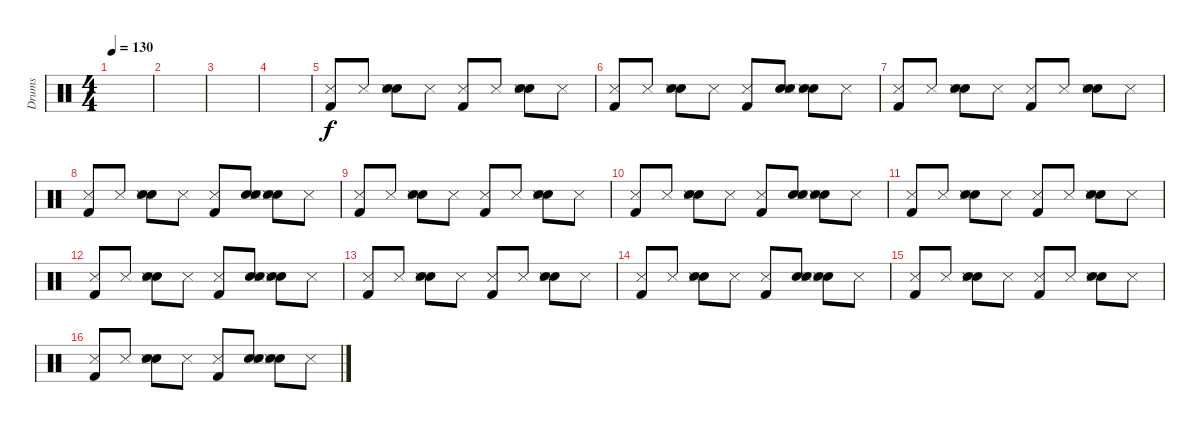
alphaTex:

\track ("Drums" "Drums") {instrument percussion}
\staff {score}
\articulation defaults
\ts (4 4)
\tempo 130
\clef neutral
\ks c
|
|
|
|
("Snare (side stick) 3" "Kick (hit) 2").8 "Snare (side stick) 3".8 ("Hand Clap (hit)" "Snare (hit) 2" "Snare (side stick) 3").8 "Snare (side stick) 3".8 ("Snare (side stick) 3" "Kick (hit) 2").8 "Snare (side stick) 3".8 ("Hand Clap (hit)" "Snare (hit) 2" "Snare (side stick) 3").8 "Snare (side stick) 3".8 |
("Snare (side stick) 3" "Kick (hit) 2").8 "Snare (side stick) 3".8 ("Hand Clap (hit)" "Snare (hit) 2" "Snare (side stick) 3").8 "Snare (side stick) 3".8 ("Snare (side stick) 3" "Kick (hit) 2").8 ("Hand Clap (hit)" "Snare (hit) 2" "Snare (side stick) 3").8 ("Hand Clap (hit)" "Snare (hit) 2" "Snare (side stick) 3").8 "Snare (side stick) 3".8 |
("Snare (side stick) 3" "Kick (hit) 2").8 "Snare (side stick) 3".8 ("Hand Clap (hit)" "Snare (hit) 2" "Snare (side stick) 3").8 "Snare (side stick) 3".8 ("Snare (side stick) 3" "Kick (hit) 2").8 "Snare (side stick) 3".8 ("Hand Clap (hit)" "Snare (hit) 2" "Snare (side stick) 3").8 "Snare (side stick) 3".8 |
("Snare (side stick) 3" "Kick (hit) 2").8 "Snare (side stick) 3".8 ("Hand Clap (hit)" "Snare (hit) 2" "Snare (side stick) 3").8 "Snare (side stick) 3".8 ("Snare (side stick) 3" "Kick (hit) 2").8 ("Hand Clap (hit)" "Snare (hit) 2" "Snare (side stick) 3").8 ("Hand Clap (hit)" "Snare (hit) 2" "Snare (side stick) 3").8 "Snare (side stick) 3".8 |
("Snare (side stick) 3" "Kick (hit) 2").8 "Snare (side stick) 3".8 ("Hand Clap (hit)" "Snare (hit) 2" "Snare (side stick) 3").8 "Snare (side stick) 3".8 ("Snare (side stick) 3" "Kick (hit) 2").8 "Snare (side stick) 3".8 ("Hand Clap (hit)" "Snare (hit) 2" "Snare (side stick) 3").8 "Snare (side stick) 3".8 |
("Snare (side stick) 3" "Kick (hit) 2").8 "Snare (side stick) 3".8 ("Hand Clap (hit)" "Snare (hit) 2" "Snare (side stick) 3").8 "Snare (side stick) 3".8 ("Snare (side stick) 3" "Kick (hit) 2").8 ("Hand Clap (hit)" "Snare (hit) 2" "Snare (side stick) 3").8 ("Hand Clap (hit)" "Snare (hit) 2" "Snare (side stick) 3").8 "Snare (side stick) 3".8 |
("Snare (side stick) 3" "Kick (hit) 2").8 "Snare (side stick) 3".8 ("Hand Clap (hit)" "Snare (hit) 2" "Snare (side stick) 3").8 "Snare (side stick) 3".8 ("Snare (side stick) 3" "Kick (hit) 2").8 "Snare (side stick) 3".8 ("Hand Clap (hit)" "Snare (hit) 2" "Snare (side stick) 3").8 "Snare (side stick) 3".8 |
("Snare (side stick) 3" "Kick (hit) 2").8 "Snare (side stick) 3".8 ("Hand Clap (hit)" "Snare (hit) 2" "Snare (side stick) 3").8 "Snare (side stick) 3".8 ("Snare (side stick) 3" "Kick (hit) 2").8 ("Hand Clap (hit)" "Snare (hit) 2" "Snare (side stick) 3").8 ("Hand Clap (hit)" "Snare (hit) 2" "Snare (side stick) 3").8 "Snare (side stick) 3".8 |
("Snare (side stick) 3" "Kick (hit) 2").8 "Snare (side stick) 3".8 ("Hand Clap (hit)" "Snare (hit) 2" "Snare (side stick) 3").8 "Snare (side stick) 3".8 ("Snare (side stick) 3" "Kick (hit) 2").8 "Snare (side stick) 3".8 ("Hand Clap (hit)" "Snare (hit) 2" "Snare (side stick) 3").8 "Snare (side stick) 3".8 |
("Snare (side stick) 3" "Kick (hit) 2").8 "Snare (side stick) 3".8 ("Hand Clap (hit)" "Snare (hit) 2" "Snare (side stick) 3").8 "Snare (side stick) 3".8 ("Snare (side stick) 3" "Kick (hit) 2").8 ("Hand Clap (hit)" "Snare (hit) 2" "Snare (side stick) 3").8 ("Hand Clap (hit)" "Snare (hit) 2" "Snare (side stick) 3").8 "Snare (side stick) 3".8 |
("Snare (side stick) 3" "Kick (hit) 2").8 "Snare (side stick) 3".8 ("Hand Clap (hit)" "Snare (hit) 2" "Snare (side stick) 3").8 "Snare (side stick) 3".8 ("Snare (side stick) 3" "Kick (hit) 2").8 "Snare (side stick) 3".8 ("Hand Clap (hit)" "Snare (hit) 2" "Snare (side stick) 3").8 "Snare (side stick) 3".8 |
("Snare (side stick) 3" "Kick (hit) 2").8 "Snare (side stick) 3".8 ("Hand Clap (hit)" "Snare (hit) 2" "Snare (side stick) 3").8 "Snare (side stick) 3".8 ("Snare (side stick) 3" "Kick (hit) 2").8 ("Hand Clap (hit)" "Snare (hit) 2" "Snare (side stick) 3").8 ("Hand Clap (hit)" "Snare (hit) 2" "Snare (side stick) 3").8 "Snare (side stick) 3".8
